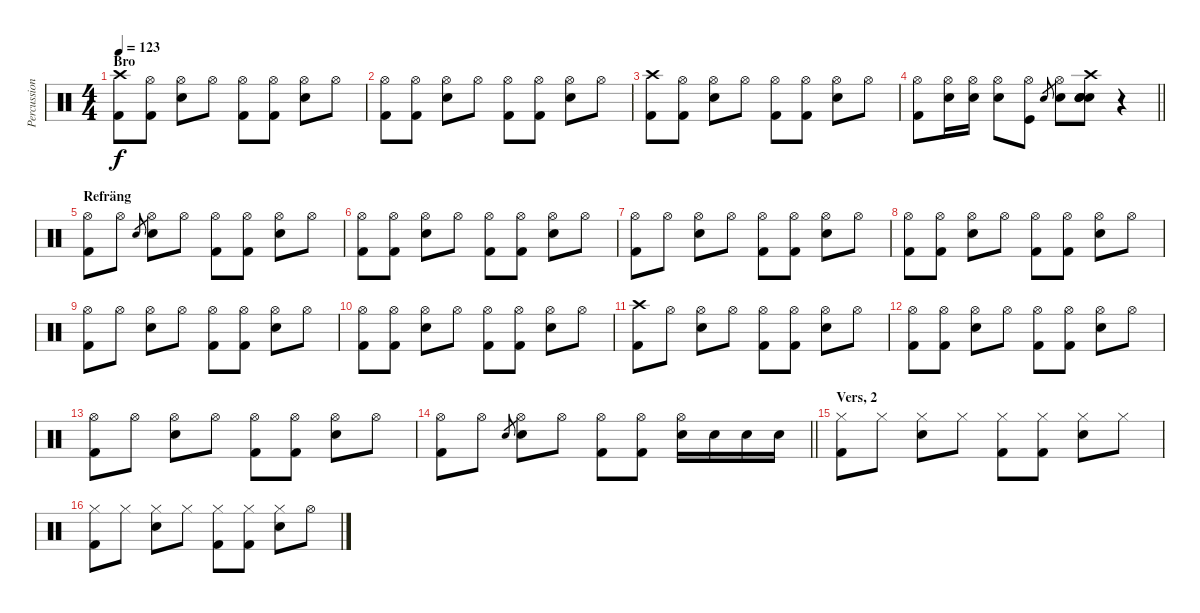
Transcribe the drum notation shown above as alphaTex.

\track ("Percussion" "Percussion") {instrument percussion}
\staff {score}
\articulation defaults
\ts (4 4)
\section ("" "Bro")
\tempo 123
\clef neutral
\ks c
("Crash high (hit)" "Kick (hit) 2").8{dy f} ("Hi-Hat (open)" "Kick (hit) 2").8 ("Hi-Hat (open)" "Snare (hit) 2").8 "Hi-Hat (open)".8 ("Hi-Hat (open)" "Kick (hit) 2").8 ("Hi-Hat (open)" "Kick (hit) 2").8 ("Hi-Hat (open)" "Snare (hit) 2").8 "Hi-Hat (open)".8 |
("Hi-Hat (open)" "Kick (hit) 2").8 ("Hi-Hat (open)" "Kick (hit) 2").8 ("Hi-Hat (open)" "Snare (hit) 2").8 "Hi-Hat (open)".8 ("Hi-Hat (open)" "Kick (hit) 2").8 ("Hi-Hat (open)" "Kick (hit) 2").8 ("Hi-Hat (open)" "Snare (hit) 2").8 "Hi-Hat (open)".8 |
("Crash high (hit)" "Kick (hit) 2").8 ("Hi-Hat (open)" "Kick (hit) 2").8 ("Hi-Hat (open)" "Snare (hit) 2").8 "Hi-Hat (open)".8 ("Hi-Hat (open)" "Kick (hit) 2").8 ("Hi-Hat (open)" "Kick (hit) 2").8 ("Hi-Hat (open)" "Snare (hit) 2").8 "Hi-Hat (open)".8 |
\barLineRight lightlight
("Hi-Hat (open)" "Kick (hit) 2").8 ("Hi-Hat (open)" "Snare (hit) 2").16 ("Hi-Hat (open)" "Snare (hit) 2").16 ("Hi-Hat (open)" "Electric Snare (hit)").8 ("Hi-Hat (open)" "Kick (hit)").8 "Snare (hit) 2".8{gr} ("Hi-Hat (open)" "Snare (hit) 2").8 ("Crash high (hit)" "Snare (hit) 2" "Snare (hit) 2" "Snare (hit) 2" "Snare (hit) 2").8 r.4 |
\section ("" "Refräng")
("Hi-Hat (open)" "Kick (hit) 2").8 "Hi-Hat (open)".8 "Snare (hit) 2".8{gr} ("Hi-Hat (open)" "Snare (hit) 2").8 "Hi-Hat (open)".8 ("Hi-Hat (open)" "Kick (hit) 2").8 ("Hi-Hat (open)" "Kick (hit) 2").8 ("Hi-Hat (open)" "Snare (hit) 2").8 "Hi-Hat (open)".8 |
("Hi-Hat (open)" "Kick (hit) 2").8 ("Hi-Hat (open)" "Kick (hit) 2").8 ("Hi-Hat (open)" "Snare (hit) 2").8 "Hi-Hat (open)".8 ("Hi-Hat (open)" "Kick (hit) 2").8 ("Hi-Hat (open)" "Kick (hit) 2").8 ("Hi-Hat (open)" "Snare (hit) 2").8 "Hi-Hat (open)".8 |
("Hi-Hat (open)" "Kick (hit) 2").8 "Hi-Hat (open)".8 ("Hi-Hat (open)" "Snare (hit) 2").8 "Hi-Hat (open)".8 ("Hi-Hat (open)" "Kick (hit) 2").8 ("Hi-Hat (open)" "Kick (hit) 2").8 ("Hi-Hat (open)" "Snare (hit) 2").8 "Hi-Hat (open)".8 |
("Hi-Hat (open)" "Kick (hit) 2").8 ("Hi-Hat (open)" "Kick (hit) 2").8 ("Hi-Hat (open)" "Snare (hit) 2").8 "Hi-Hat (open)".8 ("Hi-Hat (open)" "Kick (hit) 2").8 ("Hi-Hat (open)" "Kick (hit) 2").8 ("Hi-Hat (open)" "Snare (hit) 2").8 "Hi-Hat (open)".8 |
("Hi-Hat (open)" "Kick (hit) 2").8 "Hi-Hat (open)".8 ("Hi-Hat (open)" "Snare (hit) 2").8 "Hi-Hat (open)".8 ("Hi-Hat (open)" "Kick (hit) 2").8 ("Hi-Hat (open)" "Kick (hit) 2").8 ("Hi-Hat (open)" "Snare (hit) 2").8 "Hi-Hat (open)".8 |
("Hi-Hat (open)" "Kick (hit) 2").8 ("Hi-Hat (open)" "Kick (hit) 2").8 ("Hi-Hat (open)" "Snare (hit) 2").8 "Hi-Hat (open)".8 ("Hi-Hat (open)" "Kick (hit) 2").8 ("Hi-Hat (open)" "Kick (hit) 2").8 ("Hi-Hat (open)" "Snare (hit) 2").8 "Hi-Hat (open)".8 |
("Crash high (hit)" "Kick (hit) 2").8 "Hi-Hat (open)".8 ("Hi-Hat (open)" "Snare (hit) 2").8 "Hi-Hat (open)".8 ("Hi-Hat (open)" "Kick (hit) 2").8 ("Hi-Hat (open)" "Kick (hit) 2").8 ("Hi-Hat (open)" "Snare (hit) 2").8 "Hi-Hat (open)".8 |
("Hi-Hat (open)" "Kick (hit) 2").8 ("Hi-Hat (open)" "Kick (hit) 2").8 ("Hi-Hat (open)" "Snare (hit) 2").8 "Hi-Hat (open)".8 ("Hi-Hat (open)" "Kick (hit) 2").8 ("Hi-Hat (open)" "Kick (hit) 2").8 ("Hi-Hat (open)" "Snare (hit) 2").8 "Hi-Hat (open)".8 |
("Hi-Hat (open)" "Kick (hit) 2").8 "Hi-Hat (open)".8 ("Hi-Hat (open)" "Snare (hit) 2").8 "Hi-Hat (open)".8 ("Hi-Hat (open)" "Kick (hit) 2").8 ("Hi-Hat (open)" "Kick (hit) 2").8 ("Hi-Hat (open)" "Snare (hit) 2").8 "Hi-Hat (open)".8 |
\barLineRight lightlight
("Hi-Hat (open)" "Kick (hit) 2").8 "Hi-Hat (open)".8 "Snare (hit) 2".8{gr} ("Hi-Hat (open)" "Snare (hit) 2").8 "Hi-Hat (open)".8 ("Hi-Hat (open)" "Kick (hit) 2").8 ("Hi-Hat (open)" "Kick (hit) 2").8 ("Hi-Hat (open)" "Snare (hit) 2").16 "Snare (hit) 2".16 "Snare (hit) 2".16 "Snare (hit) 2".16 |
\section ("" "Vers, 2")
("Hi-Hat (closed)" "Kick (hit) 2").8 "Hi-Hat (closed)".8 ("Hi-Hat (closed)" "Snare (hit) 2").8 "Hi-Hat (closed)".8 ("Hi-Hat (closed)" "Kick (hit) 2").8 ("Hi-Hat (closed)" "Kick (hit) 2").8 ("Hi-Hat (closed)" "Snare (hit) 2").8 "Hi-Hat (closed)".8 |
("Hi-Hat (closed)" "Kick (hit) 2").8 "Hi-Hat (closed)".8 ("Hi-Hat (closed)" "Snare (hit) 2").8 "Hi-Hat (closed)".8 ("Hi-Hat (closed)" "Kick (hit) 2").8 ("Hi-Hat (closed)" "Kick (hit) 2").8 ("Hi-Hat (closed)" "Snare (hit) 2").8 "Hi-Hat (open)".8
